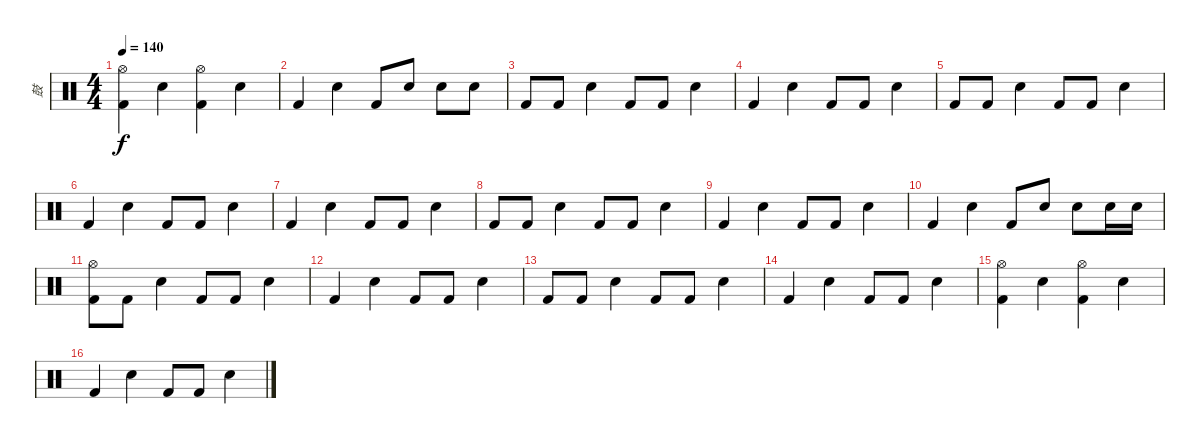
\track ("鼓" "鼓") {instrument percussion}
\staff {score}
\articulation defaults
\ts (4 4)
\tempo 140
\clef neutral
\ks c
("Hi-Hat (open)" "Kick (hit) 2").4{dy f} "Electric Snare (hit)".4 ("Hi-Hat (open)" "Kick (hit) 2").4 "Electric Snare (hit)".4 |
"Kick (hit) 2".4 "Electric Snare (hit)".4 "Kick (hit) 2".8 "Electric Snare (hit)".8 "Electric Snare (hit)".8 "Electric Snare (hit)".8 |
"Kick (hit) 2".8 "Kick (hit) 2".8 "Electric Snare (hit)".4 "Kick (hit) 2".8 "Kick (hit) 2".8 "Electric Snare (hit)".4 |
"Kick (hit) 2".4 "Electric Snare (hit)".4 "Kick (hit) 2".8 "Kick (hit) 2".8 "Electric Snare (hit)".4 |
"Kick (hit) 2".8 "Kick (hit) 2".8 "Electric Snare (hit)".4 "Kick (hit) 2".8 "Kick (hit) 2".8 "Electric Snare (hit)".4 |
"Kick (hit) 2".4 "Electric Snare (hit)".4 "Kick (hit) 2".8 "Kick (hit) 2".8 "Electric Snare (hit)".4 |
"Kick (hit) 2".4 "Electric Snare (hit)".4 "Kick (hit) 2".8 "Kick (hit) 2".8 "Electric Snare (hit)".4 |
"Kick (hit) 2".8 "Kick (hit) 2".8 "Electric Snare (hit)".4 "Kick (hit) 2".8 "Kick (hit) 2".8 "Electric Snare (hit)".4 |
"Kick (hit) 2".4 "Electric Snare (hit)".4 "Kick (hit) 2".8 "Kick (hit) 2".8 "Electric Snare (hit)".4 |
"Kick (hit) 2".4 "Electric Snare (hit)".4 "Kick (hit) 2".8 "Electric Snare (hit)".8 "Electric Snare (hit)".8 "Electric Snare (hit)".16 "Electric Snare (hit)".16 |
("Hi-Hat (open)" "Kick (hit) 2").8 "Kick (hit) 2".8 "Electric Snare (hit)".4 "Kick (hit) 2".8 "Kick (hit) 2".8 "Electric Snare (hit)".4 |
"Kick (hit) 2".4 "Electric Snare (hit)".4 "Kick (hit) 2".8 "Kick (hit) 2".8 "Electric Snare (hit)".4 |
"Kick (hit) 2".8 "Kick (hit) 2".8 "Electric Snare (hit)".4 "Kick (hit) 2".8 "Kick (hit) 2".8 "Electric Snare (hit)".4 |
"Kick (hit) 2".4 "Electric Snare (hit)".4 "Kick (hit) 2".8 "Kick (hit) 2".8 "Electric Snare (hit)".4 |
("Hi-Hat (open)" "Kick (hit) 2").4 "Electric Snare (hit)".4 ("Hi-Hat (open)" "Kick (hit) 2").4 "Electric Snare (hit)".4 |
"Kick (hit) 2".4 "Electric Snare (hit)".4 "Kick (hit) 2".8 "Kick (hit) 2".8 "Electric Snare (hit)".4
